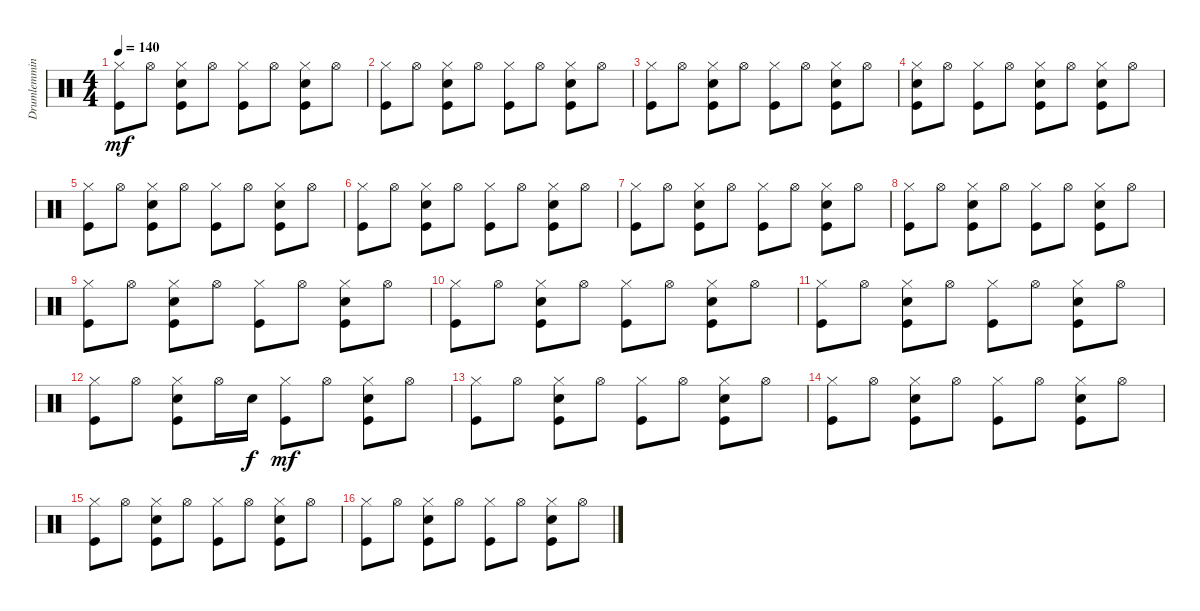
\track ("Drumlemming" "Drumlemmin") {instrument percussion}
\staff {score}
\articulation defaults
\ts (4 4)
\tempo 140
\clef neutral
\ks c
("Hi-Hat (closed)" "Kick (hit)").8{dy mf} "Hi-Hat (open)".8 ("Hi-Hat (closed)" "Hand Clap (hit)" "Kick (hit)").8 "Hi-Hat (open)".8 ("Hi-Hat (closed)" "Kick (hit)").8 "Hi-Hat (open)".8 ("Hi-Hat (closed)" "Hand Clap (hit)" "Kick (hit)").8 "Hi-Hat (open)".8 |
("Hi-Hat (closed)" "Kick (hit)").8 "Hi-Hat (open)".8 ("Hi-Hat (closed)" "Hand Clap (hit)" "Kick (hit)").8 "Hi-Hat (open)".8 ("Hi-Hat (closed)" "Kick (hit)").8 "Hi-Hat (open)".8 ("Hi-Hat (closed)" "Hand Clap (hit)" "Kick (hit)").8 "Hi-Hat (open)".8 |
("Hi-Hat (closed)" "Kick (hit)").8 "Hi-Hat (open)".8 ("Hi-Hat (closed)" "Hand Clap (hit)" "Kick (hit)").8 "Hi-Hat (open)".8 ("Hi-Hat (closed)" "Kick (hit)").8 "Hi-Hat (open)".8 ("Hi-Hat (closed)" "Hand Clap (hit)" "Kick (hit)").8 "Hi-Hat (open)".8 |
("Hi-Hat (closed)" "Snare (hit) 2" "Kick (hit)").8 "Hi-Hat (open)".8 ("Hi-Hat (closed)" "Kick (hit)").8 "Hi-Hat (open)".8 ("Hi-Hat (closed)" "Snare (hit) 2" "Kick (hit)").8 "Hi-Hat (open)".8 ("Hi-Hat (closed)" "Snare (hit) 2" "Kick (hit)").8 "Hi-Hat (open)".8 |
("Hi-Hat (closed)" "Kick (hit)").8 "Hi-Hat (open)".8 ("Hi-Hat (closed)" "Hand Clap (hit)" "Kick (hit)").8 "Hi-Hat (open)".8 ("Hi-Hat (closed)" "Kick (hit)").8 "Hi-Hat (open)".8 ("Hi-Hat (closed)" "Hand Clap (hit)" "Kick (hit)").8 "Hi-Hat (open)".8 |
("Hi-Hat (closed)" "Kick (hit)").8 "Hi-Hat (open)".8 ("Hi-Hat (closed)" "Hand Clap (hit)" "Kick (hit)").8 "Hi-Hat (open)".8 ("Hi-Hat (closed)" "Kick (hit)").8 "Hi-Hat (open)".8 ("Hi-Hat (closed)" "Hand Clap (hit)" "Kick (hit)").8 "Hi-Hat (open)".8 |
("Hi-Hat (closed)" "Kick (hit)").8 "Hi-Hat (open)".8 ("Hi-Hat (closed)" "Hand Clap (hit)" "Kick (hit)").8 "Hi-Hat (open)".8 ("Hi-Hat (closed)" "Kick (hit)").8 "Hi-Hat (open)".8 ("Hi-Hat (closed)" "Hand Clap (hit)" "Kick (hit)").8 "Hi-Hat (open)".8 |
("Hi-Hat (closed)" "Kick (hit)").8 "Hi-Hat (open)".8 ("Hi-Hat (closed)" "Hand Clap (hit)" "Kick (hit)").8 "Hi-Hat (open)".8 ("Hi-Hat (closed)" "Kick (hit)").8 "Hi-Hat (open)".8 ("Hi-Hat (closed)" "Hand Clap (hit)" "Kick (hit)").8 "Hi-Hat (open)".8 |
("Hi-Hat (closed)" "Kick (hit)").8 "Hi-Hat (open)".8 ("Hi-Hat (closed)" "Hand Clap (hit)" "Kick (hit)").8 "Hi-Hat (open)".8 ("Hi-Hat (closed)" "Kick (hit)").8 "Hi-Hat (open)".8 ("Hi-Hat (closed)" "Hand Clap (hit)" "Kick (hit)").8 "Hi-Hat (open)".8 |
("Hi-Hat (closed)" "Kick (hit)").8 "Hi-Hat (open)".8 ("Hi-Hat (closed)" "Hand Clap (hit)" "Kick (hit)").8 "Hi-Hat (open)".8 ("Hi-Hat (closed)" "Kick (hit)").8 "Hi-Hat (open)".8 ("Hi-Hat (closed)" "Hand Clap (hit)" "Kick (hit)").8 "Hi-Hat (open)".8 |
("Hi-Hat (closed)" "Kick (hit)").8 "Hi-Hat (open)".8 ("Hi-Hat (closed)" "Hand Clap (hit)" "Kick (hit)").8 "Hi-Hat (open)".8 ("Hi-Hat (closed)" "Kick (hit)").8 "Hi-Hat (open)".8 ("Hi-Hat (closed)" "Hand Clap (hit)" "Kick (hit)").8 "Hi-Hat (open)".8 |
("Hi-Hat (closed)" "Kick (hit)").8 "Hi-Hat (open)".8 ("Hi-Hat (closed)" "Hand Clap (hit)" "Kick (hit)").8 "Hi-Hat (open)".16 "Hand Clap (hit)".16{dy f} ("Hi-Hat (closed)" "Kick (hit)").8{dy mf} "Hi-Hat (open)".8 ("Hi-Hat (closed)" "Hand Clap (hit)" "Kick (hit)").8 "Hi-Hat (open)".8 |
("Hi-Hat (closed)" "Kick (hit)").8 "Hi-Hat (open)".8 ("Hi-Hat (closed)" "Hand Clap (hit)" "Kick (hit)").8 "Hi-Hat (open)".8 ("Hi-Hat (closed)" "Kick (hit)").8 "Hi-Hat (open)".8 ("Hi-Hat (closed)" "Hand Clap (hit)" "Kick (hit)").8 "Hi-Hat (open)".8 |
("Hi-Hat (closed)" "Kick (hit)").8 "Hi-Hat (open)".8 ("Hi-Hat (closed)" "Hand Clap (hit)" "Kick (hit)").8 "Hi-Hat (open)".8 ("Hi-Hat (closed)" "Kick (hit)").8 "Hi-Hat (open)".8 ("Hi-Hat (closed)" "Hand Clap (hit)" "Kick (hit)").8 "Hi-Hat (open)".8 |
("Hi-Hat (closed)" "Kick (hit)").8 "Hi-Hat (open)".8 ("Hi-Hat (closed)" "Hand Clap (hit)" "Kick (hit)").8 "Hi-Hat (open)".8 ("Hi-Hat (closed)" "Kick (hit)").8 "Hi-Hat (open)".8 ("Hi-Hat (closed)" "Hand Clap (hit)" "Kick (hit)").8 "Hi-Hat (open)".8 |
("Hi-Hat (closed)" "Kick (hit)").8 "Hi-Hat (open)".8 ("Hi-Hat (closed)" "Hand Clap (hit)" "Kick (hit)").8 "Hi-Hat (open)".8 ("Hi-Hat (closed)" "Kick (hit)").8 "Hi-Hat (open)".8 ("Hi-Hat (closed)" "Hand Clap (hit)" "Kick (hit)").8 "Hi-Hat (open)".8
